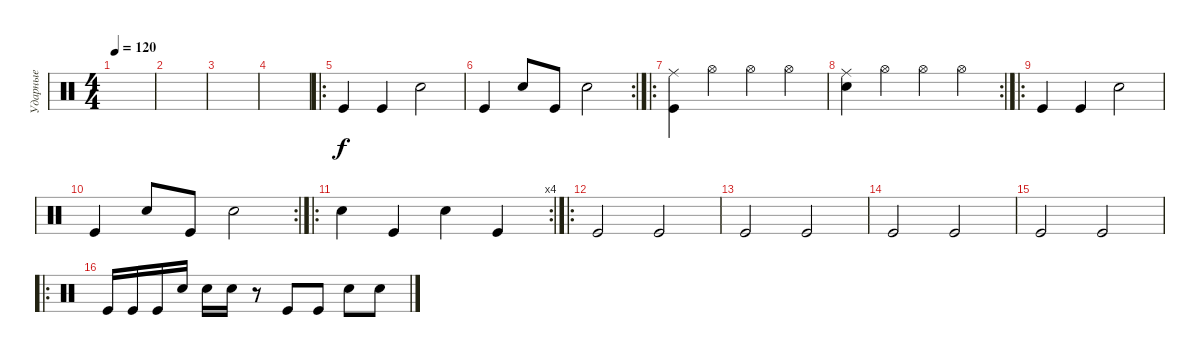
\track ("Ударные" "Ударные") {instrument percussion}
\staff {score}
\articulation defaults
\ts (4 4)
\tempo 120
\clef neutral
\ks c
|
|
|
|
\ro "Kick (hit)".4 "Kick (hit)".4 "Electric Snare (hit)".2
|
\rc 2 "Kick (hit)".4 "Snare (hit) 2".8 "Kick (hit)".8 "Electric Snare (hit)".2
|
\ro
("Ride (middle)" "Kick (hit)").4 "Hi-Hat (open)".4 "Hi-Hat (open)".4 "Hi-Hat (open)".4 |
\rc 2
("Ride (middle)" "Snare (hit) 2").4 "Hi-Hat (open)".4 "Hi-Hat (open)".4 "Hi-Hat (open)".4 |
\ro "Kick (hit)".4 "Kick (hit)".4 "Electric Snare (hit)".2
|
\rc 2 "Kick (hit)".4 "Snare (hit) 2".8 "Kick (hit)".8 "Electric Snare (hit)".2
|
\ro
\rc 4 "Electric Snare (hit)".4 "Kick (hit)".4 "Electric Snare (hit)".4 "Kick (hit)".4
|
\ro "Kick (hit)".2 "Kick (hit)".2
|
"Kick (hit)".2 "Kick (hit)".2 |
"Kick (hit)".2 "Kick (hit)".2 |
"Kick (hit)".2 "Kick (hit)".2 |
\ro "Kick (hit)".16 "Kick (hit)".16 "Kick (hit)".16 "Electric Snare (hit)".16 "Electric Snare (hit)".16 "Electric Snare (hit)".16
r.8 "Kick (hit)".8 "Kick (hit)".8 "Electric Snare (hit)".8 "Electric Snare (hit)".8
